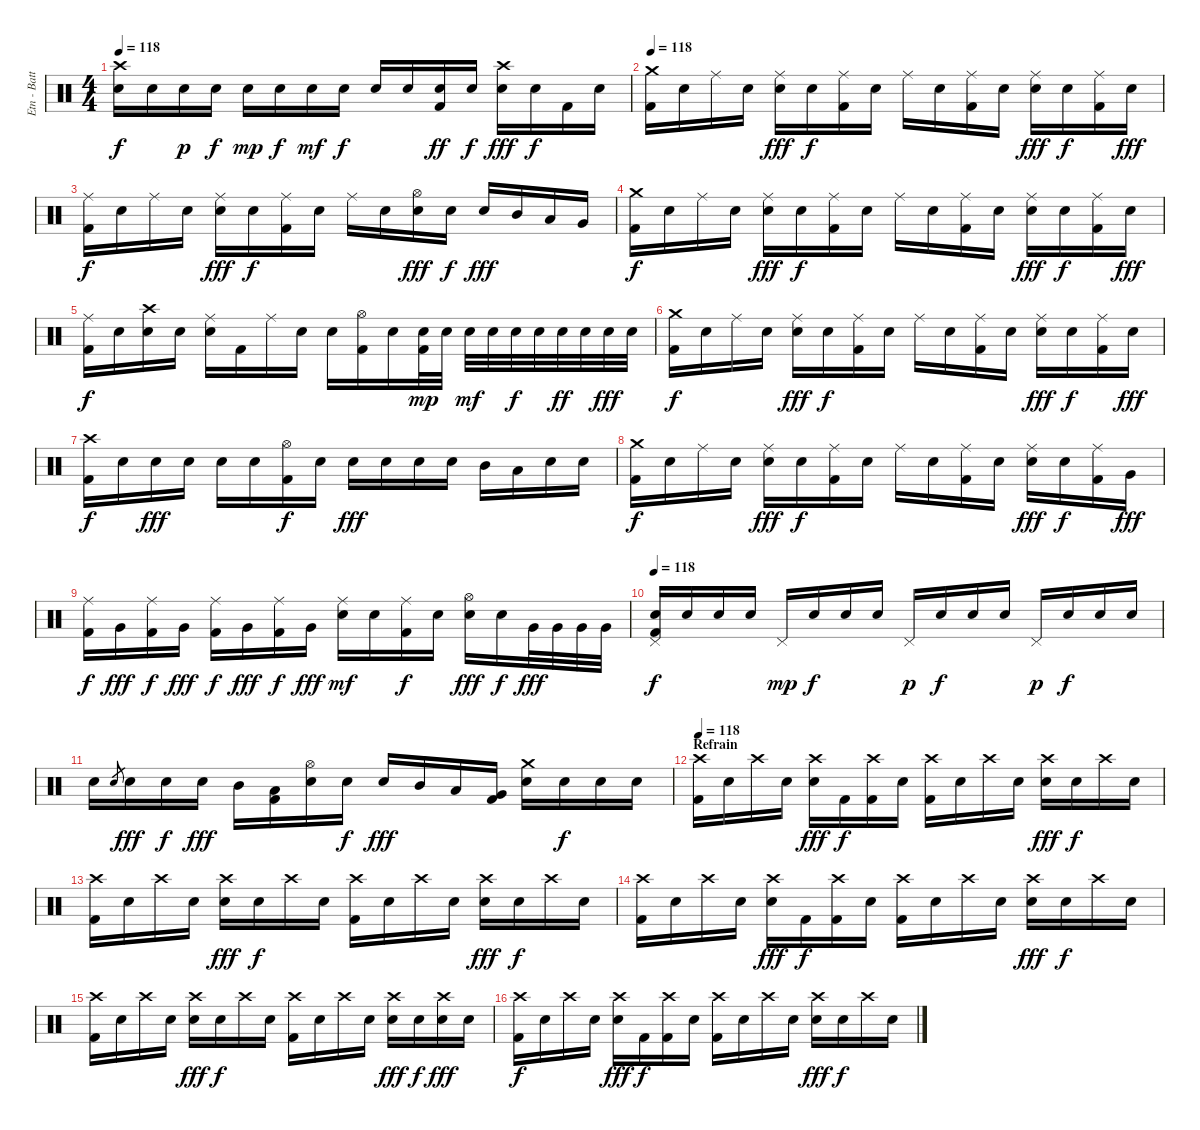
\track ("Etn - Batterie" "Etn - Batt") {instrument percussion}
\staff {score}
\articulation defaults
\ts (4 4)
\tempo 118
\clef neutral
\ks c
("Crash high (hit)" "Electric Snare (hit)").16{dy f} "Snare (hit)".16 "Electric Snare (hit)".16{dy p} "Snare (hit)".16{dy f} "Electric Snare (hit)".16{dy mp} "Snare (hit)".16{dy f} "Electric Snare (hit)".16{dy mf} "Snare (hit)".16{dy f} "Electric Snare (hit)".16 "Snare (hit)".16 ("Electric Snare (hit)" "Kick (hit) 2").16{dy ff} "Snare (hit)".16{dy f} ("Crash high (hit)" "Electric Snare (hit)").16{dy fff} "Snare (hit)".16{dy f} "Kick (hit) 2".16 "Snare (hit)".16 |
\section ("" "")
\tempo 118
("Crash medium (hit)" "Kick (hit) 2").16{volume 16 balance 8} "Snare (hit)".16 "Ride (middle)".16 "Snare (hit)".16 ("Ride (middle)" "Electric Snare (hit)").16{dy fff} "Snare (hit)".16{dy f} ("Ride (middle)" "Kick (hit) 2").16 "Snare (hit)".16 "Ride (middle)".16 "Snare (hit)".16 ("Ride (middle)" "Kick (hit) 2").16 "Snare (hit)".16 ("Ride (middle)" "Electric Snare (hit)").16{dy fff} "Snare (hit)".16{dy f} ("Ride (middle)" "Kick (hit) 2").16 "Electric Snare (hit)".16{dy fff} |
("Ride (middle)" "Kick (hit) 2").16{dy f} "Snare (hit)".16 "Ride (middle)".16 "Snare (hit)".16 ("Ride (middle)" "Electric Snare (hit)").16{dy fff} "Snare (hit)".16{dy f} ("Ride (middle)" "Kick (hit) 2").16 "Snare (hit)".16 "Ride (middle)".16 "Snare (hit)".16 ("Hi-Hat (open)" "Electric Snare (hit)").16{dy fff} "Snare (hit)".16{dy f} "Electric Snare (hit)".16{dy fff} "Mid Tom (hit)".16 "Low Tom (hit)".16 "Very Low Tom (hit)".16 |
("Crash medium (hit)" "Kick (hit) 2").16{dy f} "Snare (hit)".16 "Ride (middle)".16 "Snare (hit)".16 ("Ride (middle)" "Electric Snare (hit)").16{dy fff} "Snare (hit)".16{dy f} ("Ride (middle)" "Kick (hit) 2").16 "Snare (hit)".16 "Ride (middle)".16 "Snare (hit)".16 ("Ride (middle)" "Kick (hit) 2").16 "Snare (hit)".16 ("Ride (middle)" "Electric Snare (hit)").16{dy fff} "Snare (hit)".16{dy f} ("Ride (middle)" "Kick (hit) 2").16 "Electric Snare (hit)".16{dy fff} |
("Ride (middle)" "Kick (hit) 2").16{dy f} "Snare (hit)".16 ("Crash high (hit)" "Electric Snare (hit)").16 "Snare (hit)".16 ("Ride (middle)" "Electric Snare (hit)").16 "Kick (hit) 2".16 "Ride (middle)".16 "Electric Snare (hit)".16 "Snare (hit)".16 ("Hi-Hat (open)" "Kick (hit) 2").16 "Snare (hit)".16 ("Electric Snare (hit)" "Kick (hit) 2").32{dy mp} "Electric Snare (hit)".32 "Electric Snare (hit)".32{dy mf} "Electric Snare (hit)".32 "Electric Snare (hit)".32{dy f} "Electric Snare (hit)".32 "Electric Snare (hit)".32{dy ff} "Electric Snare (hit)".32 "Electric Snare (hit)".32{dy fff} "Electric Snare (hit)".32 |
("Crash medium (hit)" "Kick (hit) 2").16{dy f} "Snare (hit)".16 "Ride (middle)".16 "Snare (hit)".16 ("Ride (middle)" "Electric Snare (hit)").16{dy fff} "Snare (hit)".16{dy f} ("Ride (middle)" "Kick (hit) 2").16 "Snare (hit)".16 "Ride (middle)".16 "Snare (hit)".16 ("Ride (middle)" "Kick (hit) 2").16 "Snare (hit)".16 ("Ride (middle)" "Electric Snare (hit)").16{dy fff} "Snare (hit)".16{dy f} ("Ride (middle)" "Kick (hit) 2").16 "Electric Snare (hit)".16{dy fff} |
("Crash high (hit)" "Kick (hit) 2").16{dy f} "Snare (hit)".16 "Electric Snare (hit)".16{dy fff} "Electric Snare (hit)".16 "Electric Snare (hit)".16 "Electric Snare (hit)".16 ("Hi-Hat (open)" "Kick (hit) 2").16{dy f} "Snare (hit)".16 "Electric Snare (hit)".16{dy fff} "Electric Snare (hit)".16 "Electric Snare (hit)".16 "Electric Snare (hit)".16 "Mid Tom (hit)".16 "Low Tom (hit)".16 "Electric Snare (hit)".16 "Electric Snare (hit)".16 |
("Crash medium (hit)" "Kick (hit) 2").16{dy f} "Snare (hit)".16 "Ride (middle)".16 "Snare (hit)".16 ("Ride (middle)" "Electric Snare (hit)").16{dy fff} "Snare (hit)".16{dy f} ("Ride (middle)" "Kick (hit) 2").16 "Snare (hit)".16 "Ride (middle)".16 "Snare (hit)".16 ("Ride (middle)" "Kick (hit) 2").16 "Snare (hit)".16 ("Ride (middle)" "Electric Snare (hit)").16{dy fff} "Snare (hit)".16{dy f} ("Ride (middle)" "Kick (hit) 2").16 "Very Low Tom (hit)".16{dy fff} |
("Ride (middle)" "Kick (hit) 2").16{dy f} "Very Low Tom (hit)".16{dy fff} ("Ride (middle)" "Kick (hit) 2").16{dy f} "Very Low Tom (hit)".16{dy fff} ("Ride (middle)" "Kick (hit) 2").16{dy f} "Very Low Tom (hit)".16{dy fff} ("Ride (middle)" "Kick (hit) 2").16{dy f} "Very Low Tom (hit)".16{dy fff} ("Ride (middle)" "Electric Snare (hit)").16{dy mf} "Electric Snare (hit)".16 ("Ride (middle)" "Kick (hit) 2").16{dy f} "Snare (hit)".16 ("Hi-Hat (open)" "Electric Snare (hit)").16{dy fff} "Snare (hit)".16{dy f} "Very Low Tom (hit)".32{dy fff} "Very Low Tom (hit)".32 "Very Low Tom (hit)".32 "Very Low Tom (hit)".32 |
\section ("" "")
\tempo 118
("Pedal Hi-Hat (hit)" "Electric Snare (hit)" "Kick (hit) 2").16{dy f volume 16 balance 8} "Snare (hit)".16 "Snare (hit)".16 "Snare (hit)".16 "Pedal Hi-Hat (hit)".16{dy mp} "Snare (hit)".16{dy f} "Snare (hit)".16 "Snare (hit)".16 "Pedal Hi-Hat (hit)".16{dy p} "Snare (hit)".16{dy f} "Snare (hit)".16 "Snare (hit)".16 "Pedal Hi-Hat (hit)".16{dy p} "Snare (hit)".16{dy f} "Snare (hit)".16 "Snare (hit)".16 |
"Snare (hit)".16 "Electric Snare (hit)".8{gr} "Electric Snare (hit)".16{dy fff} "Snare (hit)".16{dy f} "Electric Snare (hit)".16{dy fff} "Mid Tom (hit)".16 ("Low Tom (hit)" "Kick (hit) 2").16 ("Hi-Hat (open)" "Electric Snare (hit)").16 "Snare (hit)".16{dy f} "Electric Snare (hit)".16{dy fff} "Mid Tom (hit)".16 "Low Tom (hit)".16 ("Very Low Tom (hit)" "Kick (hit) 2").16 ("Crash medium (hit)" "Electric Snare (hit)").16 "Snare (hit)".16{dy f} "Snare (hit)".16 "Snare (hit)".16 |
\section ("" "Refrain")
\tempo 118
("Crash high (hit)" "Kick (hit) 2").16{volume 16 balance 8} "Snare (hit)".16 "Crash high (hit)".16 "Snare (hit)".16 ("Crash high (hit)" "Electric Snare (hit)").16{dy fff} "Kick (hit) 2".16{dy f} ("Crash high (hit)" "Kick (hit) 2").16 "Snare (hit)".16 ("Crash high (hit)" "Kick (hit) 2").16 "Snare (hit)".16 "Crash high (hit)".16 "Snare (hit)".16 ("Crash high (hit)" "Electric Snare (hit)").16{dy fff} "Snare (hit)".16{dy f} "Crash high (hit)".16 "Snare (hit)".16 |
("Crash high (hit)" "Kick (hit) 2").16 "Snare (hit)".16 "Crash high (hit)".16 "Snare (hit)".16 ("Crash high (hit)" "Electric Snare (hit)").16{dy fff} "Snare (hit)".16{dy f} "Crash high (hit)".16 "Snare (hit)".16 ("Crash high (hit)" "Kick (hit) 2").16 "Snare (hit)".16 "Crash high (hit)".16 "Snare (hit)".16 ("Crash high (hit)" "Electric Snare (hit)").16{dy fff} "Snare (hit)".16{dy f} "Crash high (hit)".16 "Snare (hit)".16 |
("Crash high (hit)" "Kick (hit) 2").16 "Snare (hit)".16 "Crash high (hit)".16 "Snare (hit)".16 ("Crash high (hit)" "Electric Snare (hit)").16{dy fff} "Kick (hit) 2".16{dy f} ("Crash high (hit)" "Kick (hit) 2").16 "Snare (hit)".16 ("Crash high (hit)" "Kick (hit) 2").16 "Snare (hit)".16 "Crash high (hit)".16 "Snare (hit)".16 ("Crash high (hit)" "Electric Snare (hit)").16{dy fff} "Snare (hit)".16{dy f} "Crash high (hit)".16 "Snare (hit)".16 |
("Crash high (hit)" "Kick (hit) 2").16 "Snare (hit)".16 "Crash high (hit)".16 "Snare (hit)".16 ("Crash high (hit)" "Electric Snare (hit)").16{dy fff} "Snare (hit)".16{dy f} "Crash high (hit)".16 "Snare (hit)".16 ("Crash high (hit)" "Kick (hit) 2").16 "Snare (hit)".16 "Crash high (hit)".16 "Snare (hit)".16 ("Crash high (hit)" "Electric Snare (hit)").16{dy fff} "Snare (hit)".16{dy f} ("Crash high (hit)" "Electric Snare (hit)").16{dy fff} "Electric Snare (hit)".16 |
("Crash high (hit)" "Kick (hit) 2").16{dy f} "Snare (hit)".16 "Crash high (hit)".16 "Snare (hit)".16 ("Crash high (hit)" "Electric Snare (hit)").16{dy fff} "Kick (hit) 2".16{dy f} ("Crash high (hit)" "Kick (hit) 2").16 "Snare (hit)".16 ("Crash high (hit)" "Kick (hit) 2").16 "Snare (hit)".16 "Crash high (hit)".16 "Snare (hit)".16 ("Crash high (hit)" "Electric Snare (hit)").16{dy fff} "Snare (hit)".16{dy f} "Crash high (hit)".16 "Snare (hit)".16
